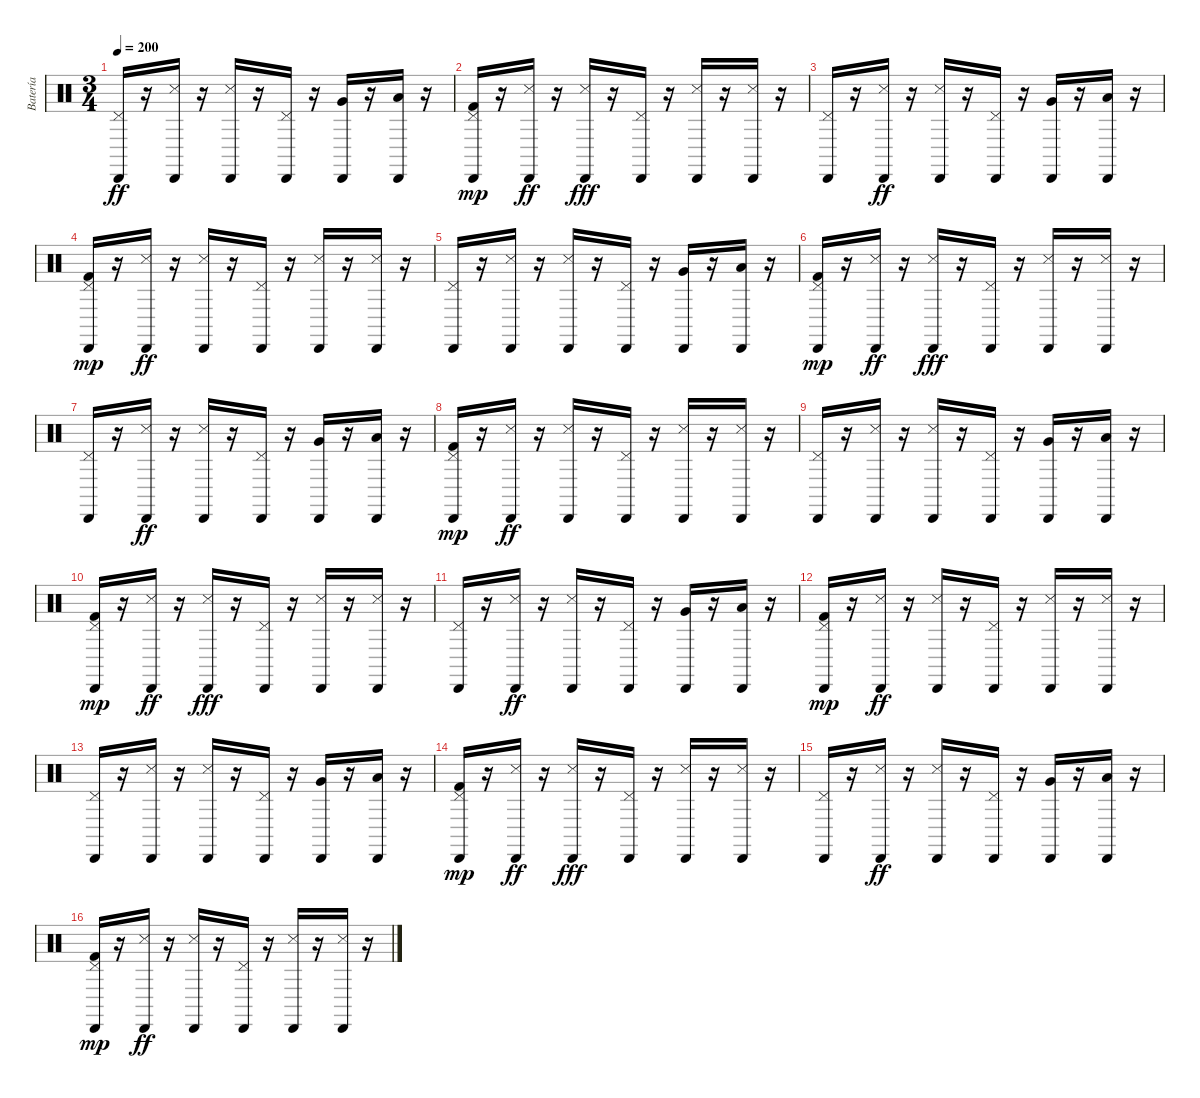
\track ("Batería" "Batería") {instrument percussion}
\staff {score}
\articulation defaults
\ts (3 4)
\tempo 200
\clef neutral
\ks c
("Cabasa (hit)" "Pedal Hi-Hat (hit)").16{dy ff} r.16 ("Cabasa (hit)" "Snare (side stick) 3").16 r.16 ("Cabasa (hit)" "Snare (side stick) 3").16 r.16 ("Cabasa (hit)" "Pedal Hi-Hat (hit)").16 r.16 ("Cabasa (hit)" "Very Low Tom (hit)").16 r.16 ("Cabasa (hit)" "Low Floor Tom (hit)").16 r.16 |
("Cabasa (hit)" "Pedal Hi-Hat (hit)" "Kick (hit) 2").16{dy mp} r.16 ("Cabasa (hit)" "Snare (side stick) 3").16{dy ff} r.16 ("Cabasa (hit)" "Snare (side stick) 3").16{dy fff} r.16 ("Cabasa (hit)" "Pedal Hi-Hat (hit)").16 r.16 ("Cabasa (hit)" "Snare (side stick) 3").16 r.16 ("Cabasa (hit)" "Snare (side stick) 3").16 r.16 |
("Cabasa (hit)" "Pedal Hi-Hat (hit)").16 r.16 ("Cabasa (hit)" "Snare (side stick) 3").16{dy ff} r.16 ("Cabasa (hit)" "Snare (side stick) 3").16 r.16 ("Cabasa (hit)" "Pedal Hi-Hat (hit)").16 r.16 ("Cabasa (hit)" "Very Low Tom (hit)").16 r.16 ("Cabasa (hit)" "Low Floor Tom (hit)").16 r.16 |
("Cabasa (hit)" "Pedal Hi-Hat (hit)" "Kick (hit) 2").16{dy mp} r.16 ("Cabasa (hit)" "Snare (side stick) 3").16{dy ff} r.16 ("Cabasa (hit)" "Snare (side stick) 3").16 r.16 ("Cabasa (hit)" "Pedal Hi-Hat (hit)").16 r.16 ("Cabasa (hit)" "Snare (side stick) 3").16 r.16 ("Cabasa (hit)" "Snare (side stick) 3").16 r.16 |
("Cabasa (hit)" "Pedal Hi-Hat (hit)").16 r.16 ("Cabasa (hit)" "Snare (side stick) 3").16 r.16 ("Cabasa (hit)" "Snare (side stick) 3").16 r.16 ("Cabasa (hit)" "Pedal Hi-Hat (hit)").16 r.16 ("Cabasa (hit)" "Very Low Tom (hit)").16 r.16 ("Cabasa (hit)" "Low Floor Tom (hit)").16 r.16 |
("Cabasa (hit)" "Pedal Hi-Hat (hit)" "Kick (hit) 2").16{dy mp} r.16 ("Cabasa (hit)" "Snare (side stick) 3").16{dy ff} r.16 ("Cabasa (hit)" "Snare (side stick) 3").16{dy fff} r.16 ("Cabasa (hit)" "Pedal Hi-Hat (hit)").16 r.16 ("Cabasa (hit)" "Snare (side stick) 3").16 r.16 ("Cabasa (hit)" "Snare (side stick) 3").16 r.16 |
("Cabasa (hit)" "Pedal Hi-Hat (hit)").16 r.16 ("Cabasa (hit)" "Snare (side stick) 3").16{dy ff} r.16 ("Cabasa (hit)" "Snare (side stick) 3").16 r.16 ("Cabasa (hit)" "Pedal Hi-Hat (hit)").16 r.16 ("Cabasa (hit)" "Very Low Tom (hit)").16 r.16 ("Cabasa (hit)" "Low Floor Tom (hit)").16 r.16 |
("Cabasa (hit)" "Pedal Hi-Hat (hit)" "Kick (hit) 2").16{dy mp} r.16 ("Cabasa (hit)" "Snare (side stick) 3").16{dy ff} r.16 ("Cabasa (hit)" "Snare (side stick) 3").16 r.16 ("Cabasa (hit)" "Pedal Hi-Hat (hit)").16 r.16 ("Cabasa (hit)" "Snare (side stick) 3").16 r.16 ("Cabasa (hit)" "Snare (side stick) 3").16 r.16 |
("Cabasa (hit)" "Pedal Hi-Hat (hit)").16 r.16 ("Cabasa (hit)" "Snare (side stick) 3").16 r.16 ("Cabasa (hit)" "Snare (side stick) 3").16 r.16 ("Cabasa (hit)" "Pedal Hi-Hat (hit)").16 r.16 ("Cabasa (hit)" "Very Low Tom (hit)").16 r.16 ("Cabasa (hit)" "Low Floor Tom (hit)").16 r.16 |
("Cabasa (hit)" "Pedal Hi-Hat (hit)" "Kick (hit) 2").16{dy mp} r.16 ("Cabasa (hit)" "Snare (side stick) 3").16{dy ff} r.16 ("Cabasa (hit)" "Snare (side stick) 3").16{dy fff} r.16 ("Cabasa (hit)" "Pedal Hi-Hat (hit)").16 r.16 ("Cabasa (hit)" "Snare (side stick) 3").16 r.16 ("Cabasa (hit)" "Snare (side stick) 3").16 r.16 |
("Cabasa (hit)" "Pedal Hi-Hat (hit)").16 r.16 ("Cabasa (hit)" "Snare (side stick) 3").16{dy ff} r.16 ("Cabasa (hit)" "Snare (side stick) 3").16 r.16 ("Cabasa (hit)" "Pedal Hi-Hat (hit)").16 r.16 ("Cabasa (hit)" "Very Low Tom (hit)").16 r.16 ("Cabasa (hit)" "Low Floor Tom (hit)").16 r.16 |
("Cabasa (hit)" "Pedal Hi-Hat (hit)" "Kick (hit) 2").16{dy mp} r.16 ("Cabasa (hit)" "Snare (side stick) 3").16{dy ff} r.16 ("Cabasa (hit)" "Snare (side stick) 3").16 r.16 ("Cabasa (hit)" "Pedal Hi-Hat (hit)").16 r.16 ("Cabasa (hit)" "Snare (side stick) 3").16 r.16 ("Cabasa (hit)" "Snare (side stick) 3").16 r.16 |
("Cabasa (hit)" "Pedal Hi-Hat (hit)").16 r.16 ("Cabasa (hit)" "Snare (side stick) 3").16 r.16 ("Cabasa (hit)" "Snare (side stick) 3").16 r.16 ("Cabasa (hit)" "Pedal Hi-Hat (hit)").16 r.16 ("Cabasa (hit)" "Very Low Tom (hit)").16 r.16 ("Cabasa (hit)" "Low Floor Tom (hit)").16 r.16 |
("Cabasa (hit)" "Pedal Hi-Hat (hit)" "Kick (hit) 2").16{dy mp} r.16 ("Cabasa (hit)" "Snare (side stick) 3").16{dy ff} r.16 ("Cabasa (hit)" "Snare (side stick) 3").16{dy fff} r.16 ("Cabasa (hit)" "Pedal Hi-Hat (hit)").16 r.16 ("Cabasa (hit)" "Snare (side stick) 3").16 r.16 ("Cabasa (hit)" "Snare (side stick) 3").16 r.16 |
("Cabasa (hit)" "Pedal Hi-Hat (hit)").16 r.16 ("Cabasa (hit)" "Snare (side stick) 3").16{dy ff} r.16 ("Cabasa (hit)" "Snare (side stick) 3").16 r.16 ("Cabasa (hit)" "Pedal Hi-Hat (hit)").16 r.16 ("Cabasa (hit)" "Very Low Tom (hit)").16 r.16 ("Cabasa (hit)" "Low Floor Tom (hit)").16 r.16 |
("Cabasa (hit)" "Pedal Hi-Hat (hit)" "Kick (hit) 2").16{dy mp} r.16 ("Cabasa (hit)" "Snare (side stick) 3").16{dy ff} r.16 ("Cabasa (hit)" "Snare (side stick) 3").16 r.16 ("Cabasa (hit)" "Pedal Hi-Hat (hit)").16 r.16 ("Cabasa (hit)" "Snare (side stick) 3").16 r.16 ("Cabasa (hit)" "Snare (side stick) 3").16 r.16
